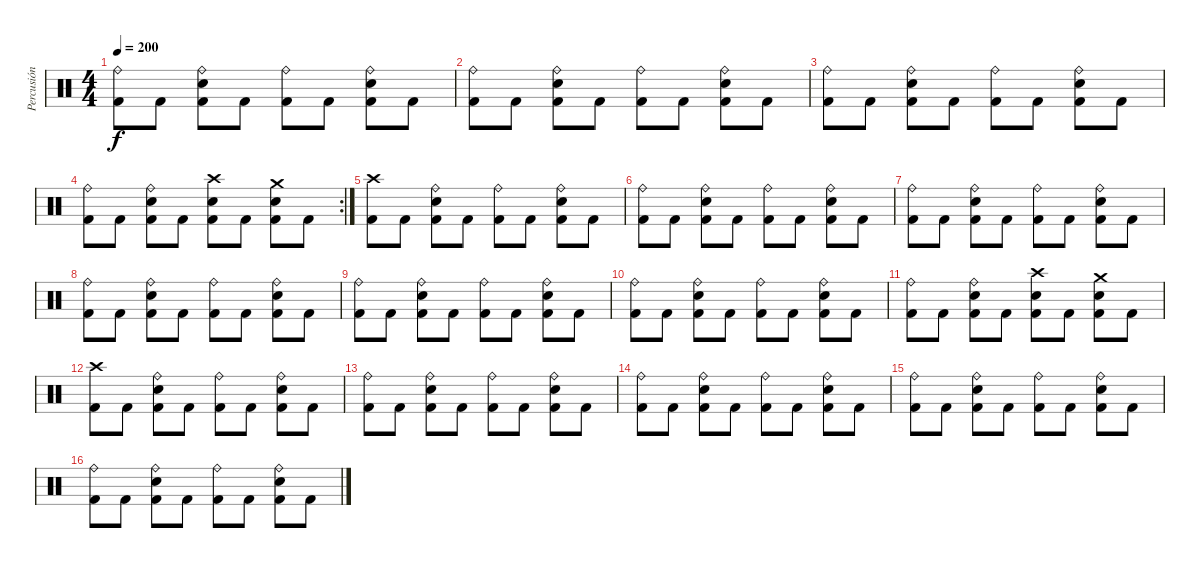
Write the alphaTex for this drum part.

\track ("Percusión" "Percusión") {instrument percussion}
\staff {score}
\articulation defaults
\ts (4 4)
\tempo 200
\clef neutral
\ks c
("Ride (bell)" "Kick (hit) 2").8{dy f} "Kick (hit) 2".8 ("Ride (bell)" "Kick (hit) 2" "Electric Snare (hit)").8 "Kick (hit) 2".8 ("Ride (bell)" "Kick (hit) 2").8 "Kick (hit) 2".8 ("Ride (bell)" "Kick (hit) 2" "Electric Snare (hit)").8 "Kick (hit) 2".8 |
("Ride (bell)" "Kick (hit) 2").8 "Kick (hit) 2".8 ("Ride (bell)" "Kick (hit) 2" "Electric Snare (hit)").8 "Kick (hit) 2".8 ("Ride (bell)" "Kick (hit) 2").8 "Kick (hit) 2".8 ("Ride (bell)" "Kick (hit) 2" "Electric Snare (hit)").8 "Kick (hit) 2".8 |
("Ride (bell)" "Kick (hit) 2").8 "Kick (hit) 2".8 ("Ride (bell)" "Kick (hit) 2" "Electric Snare (hit)").8 "Kick (hit) 2".8 ("Ride (bell)" "Kick (hit) 2").8 "Kick (hit) 2".8 ("Ride (bell)" "Kick (hit) 2" "Electric Snare (hit)").8 "Kick (hit) 2".8 |
\rc 2
("Ride (bell)" "Kick (hit) 2").8 "Kick (hit) 2".8 ("Ride (bell)" "Kick (hit) 2" "Electric Snare (hit)").8 "Kick (hit) 2".8 ("Crash high (hit)" "Kick (hit) 2" "Electric Snare (hit)").8 "Kick (hit) 2".8 ("Crash medium (hit)" "Kick (hit) 2" "Electric Snare (hit)").8 "Kick (hit) 2".8 |
("Crash high (hit)" "Kick (hit) 2").8{volume 13} "Kick (hit) 2".8 ("Ride (bell)" "Kick (hit) 2" "Electric Snare (hit)").8 "Kick (hit) 2".8 ("Ride (bell)" "Kick (hit) 2").8 "Kick (hit) 2".8 ("Ride (bell)" "Kick (hit) 2" "Electric Snare (hit)").8 "Kick (hit) 2".8 |
("Ride (bell)" "Kick (hit) 2").8 "Kick (hit) 2".8 ("Ride (bell)" "Kick (hit) 2" "Electric Snare (hit)").8 "Kick (hit) 2".8 ("Ride (bell)" "Kick (hit) 2").8 "Kick (hit) 2".8 ("Ride (bell)" "Kick (hit) 2" "Electric Snare (hit)").8 "Kick (hit) 2".8 |
("Ride (bell)" "Kick (hit) 2").8{volume 11} "Kick (hit) 2".8 ("Ride (bell)" "Kick (hit) 2" "Electric Snare (hit)").8 "Kick (hit) 2".8 ("Ride (bell)" "Kick (hit) 2").8 "Kick (hit) 2".8 ("Ride (bell)" "Kick (hit) 2" "Electric Snare (hit)").8 "Kick (hit) 2".8 |
("Ride (bell)" "Kick (hit) 2").8 "Kick (hit) 2".8 ("Ride (bell)" "Kick (hit) 2" "Electric Snare (hit)").8 "Kick (hit) 2".8 ("Ride (bell)" "Kick (hit) 2").8 "Kick (hit) 2".8 ("Ride (bell)" "Kick (hit) 2" "Electric Snare (hit)").8 "Kick (hit) 2".8 |
("Ride (bell)" "Kick (hit) 2").8{volume 9} "Kick (hit) 2".8 ("Ride (bell)" "Kick (hit) 2" "Electric Snare (hit)").8 "Kick (hit) 2".8 ("Ride (bell)" "Kick (hit) 2").8 "Kick (hit) 2".8 ("Ride (bell)" "Kick (hit) 2" "Electric Snare (hit)").8 "Kick (hit) 2".8 |
("Ride (bell)" "Kick (hit) 2").8 "Kick (hit) 2".8 ("Ride (bell)" "Kick (hit) 2" "Electric Snare (hit)").8 "Kick (hit) 2".8 ("Ride (bell)" "Kick (hit) 2").8 "Kick (hit) 2".8 ("Ride (bell)" "Kick (hit) 2" "Electric Snare (hit)").8 "Kick (hit) 2".8 |
("Ride (bell)" "Kick (hit) 2").8{volume 7} "Kick (hit) 2".8 ("Ride (bell)" "Kick (hit) 2" "Electric Snare (hit)").8 "Kick (hit) 2".8 ("Crash high (hit)" "Kick (hit) 2" "Electric Snare (hit)").8 "Kick (hit) 2".8 ("Crash medium (hit)" "Kick (hit) 2" "Electric Snare (hit)").8 "Kick (hit) 2".8 |
("Crash high (hit)" "Kick (hit) 2").8 "Kick (hit) 2".8 ("Ride (bell)" "Kick (hit) 2" "Electric Snare (hit)").8 "Kick (hit) 2".8 ("Ride (bell)" "Kick (hit) 2").8 "Kick (hit) 2".8 ("Ride (bell)" "Kick (hit) 2" "Electric Snare (hit)").8 "Kick (hit) 2".8 |
("Ride (bell)" "Kick (hit) 2").8{volume 6} "Kick (hit) 2".8 ("Ride (bell)" "Kick (hit) 2" "Electric Snare (hit)").8 "Kick (hit) 2".8 ("Ride (bell)" "Kick (hit) 2").8 "Kick (hit) 2".8 ("Ride (bell)" "Kick (hit) 2" "Electric Snare (hit)").8 "Kick (hit) 2".8 |
("Ride (bell)" "Kick (hit) 2").8 "Kick (hit) 2".8 ("Ride (bell)" "Kick (hit) 2" "Electric Snare (hit)").8 "Kick (hit) 2".8 ("Ride (bell)" "Kick (hit) 2").8 "Kick (hit) 2".8 ("Ride (bell)" "Kick (hit) 2" "Electric Snare (hit)").8 "Kick (hit) 2".8 |
("Ride (bell)" "Kick (hit) 2").8{volume 5} "Kick (hit) 2".8 ("Ride (bell)" "Kick (hit) 2" "Electric Snare (hit)").8 "Kick (hit) 2".8 ("Ride (bell)" "Kick (hit) 2").8 "Kick (hit) 2".8 ("Ride (bell)" "Kick (hit) 2" "Electric Snare (hit)").8 "Kick (hit) 2".8 |
("Ride (bell)" "Kick (hit) 2").8 "Kick (hit) 2".8 ("Ride (bell)" "Kick (hit) 2" "Electric Snare (hit)").8 "Kick (hit) 2".8 ("Ride (bell)" "Kick (hit) 2").8 "Kick (hit) 2".8 ("Ride (bell)" "Kick (hit) 2" "Electric Snare (hit)").8 "Kick (hit) 2".8
